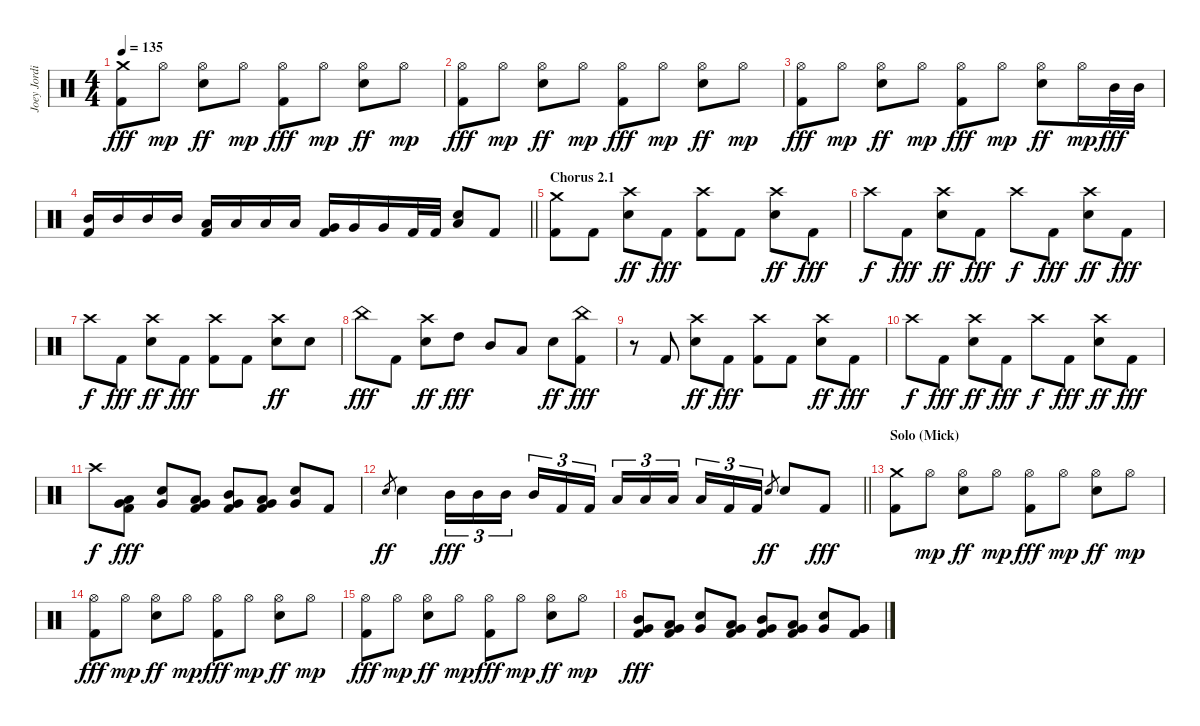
\track ("Joey Jordison" "Joey Jordi") {instrument percussion}
\staff {score}
\articulation defaults
\ts (4 4)
\tempo 135
\clef neutral
\ks c
("Crash medium (hit)" "Kick (hit) 2").8{dy fff} "Hi-Hat (open)".8{dy mp} ("Hi-Hat (open)" "Electric Snare (hit)").8{dy ff} "Hi-Hat (open)".8{dy mp} ("Hi-Hat (open)" "Kick (hit) 2").8{dy fff} "Hi-Hat (open)".8{dy mp} ("Hi-Hat (open)" "Electric Snare (hit)").8{dy ff} "Hi-Hat (open)".8{dy mp} |
("Hi-Hat (open)" "Kick (hit) 2").8{dy fff} "Hi-Hat (open)".8{dy mp} ("Hi-Hat (open)" "Electric Snare (hit)").8{dy ff} "Hi-Hat (open)".8{dy mp} ("Hi-Hat (open)" "Kick (hit) 2").8{dy fff} "Hi-Hat (open)".8{dy mp} ("Hi-Hat (open)" "Electric Snare (hit)").8{dy ff} "Hi-Hat (open)".8{dy mp} |
("Hi-Hat (open)" "Kick (hit) 2").8{dy fff} "Hi-Hat (open)".8{dy mp} ("Hi-Hat (open)" "Electric Snare (hit)").8{dy ff} "Hi-Hat (open)".8{dy mp} ("Hi-Hat (open)" "Kick (hit) 2").8{dy fff} "Hi-Hat (open)".8{dy mp} ("Hi-Hat (open)" "Electric Snare (hit)").8{dy ff} "Hi-Hat (open)".16{dy mp} "Mid Tom (hit)".32{dy fff} "Mid Tom (hit)".32 |
\barLineRight lightlight
("Mid Tom (hit)" "Kick (hit) 2").16 "Mid Tom (hit)".16 "Mid Tom (hit)".16 "Mid Tom (hit)".16 ("Low Tom (hit)" "Kick (hit) 2").16 "Low Tom (hit)".16 "Low Tom (hit)".16 "Low Tom (hit)".16 ("Very Low Tom (hit)" "Kick (hit) 2").16 "Very Low Tom (hit)".16 "Very Low Tom (hit)".16 "Kick (hit) 2".32 "Kick (hit) 2".32 ("Electric Snare (hit)" "Low Floor Tom (hit)").8 "Kick (hit) 2".8 |
\section ("" "Chorus 2.1")
("Crash medium (hit)" "Kick (hit) 2").8 "Kick (hit) 2".8 ("Crash high (hit)" "Electric Snare (hit)").8{dy ff} "Kick (hit) 2".8{dy fff} ("Crash high (hit)" "Kick (hit) 2").8 "Kick (hit) 2".8 ("Crash high (hit)" "Electric Snare (hit)").8{dy ff} "Kick (hit) 2".8{dy fff} |
"Crash high (hit)".8{dy f} "Kick (hit) 2".8{dy fff} ("Crash high (hit)" "Electric Snare (hit)").8{dy ff} "Kick (hit) 2".8{dy fff} "Crash high (hit)".8{dy f} "Kick (hit) 2".8{dy fff} ("Crash high (hit)" "Electric Snare (hit)").8{dy ff} "Kick (hit) 2".8{dy fff} |
"Crash high (hit)".8{dy f} "Kick (hit) 2".8{dy fff} ("Crash high (hit)" "Electric Snare (hit)").8{dy ff} "Kick (hit) 2".8{dy fff} ("Crash high (hit)" "Kick (hit) 2").8 "Kick (hit) 2".8 ("Crash high (hit)" "Electric Snare (hit)").8{dy ff} "Electric Snare (hit)".8 |
"China (hit)".8{dy fff} "Kick (hit) 2".8 ("Crash high (hit)" "Electric Snare (hit)").8{dy ff} "High Tom (hit)".8{dy fff} "Mid Tom (hit)".8 "Low Tom (hit)".8 "Electric Snare (hit)".8{dy ff} ("China (hit)" "Kick (hit) 2").8{dy fff} |
r.8 "Kick (hit) 2".8 ("Crash high (hit)" "Electric Snare (hit)").8{dy ff} "Kick (hit) 2".8{dy fff} ("Crash high (hit)" "Kick (hit) 2").8 "Kick (hit) 2".8 ("Crash high (hit)" "Electric Snare (hit)").8{dy ff} "Kick (hit) 2".8{dy fff} |
"Crash high (hit)".8{dy f} "Kick (hit) 2".8{dy fff} ("Crash high (hit)" "Electric Snare (hit)").8{dy ff} "Kick (hit) 2".8{dy fff} "Crash high (hit)".8{dy f} "Kick (hit) 2".8{dy fff} ("Crash high (hit)" "Electric Snare (hit)").8{dy ff} "Kick (hit) 2".8{dy fff} |
"Crash high (hit)".8{dy f} ("Low Tom (hit)" "Very Low Tom (hit)" "Kick (hit) 2").8{dy fff} ("Electric Snare (hit)" "Very Low Tom (hit)").8 ("Low Tom (hit)" "Very Low Tom (hit)" "Kick (hit) 2").8 ("Mid Tom (hit)" "Very Low Tom (hit)" "Kick (hit) 2").8 ("Low Tom (hit)" "Very Low Tom (hit)" "Kick (hit) 2").8 ("Electric Snare (hit)" "Very Low Tom (hit)").8 "Kick (hit) 2".8 |
\barLineRight lightlight "Electric Snare (hit)".8{gr dy ff} "Electric Snare (hit)".4 "Mid Tom (hit)".16{tu (3 2) dy fff} "Mid Tom (hit)".16{tu (3 2)} "Mid Tom (hit)".16{tu (3 2) beam splitsecondary} "Mid Tom (hit)".16{tu (3 2)} "Kick (hit) 2".16{tu (3 2)} "Kick (hit) 2".16{tu (3 2)} "Low Tom (hit)".16{tu (3 2)} "Low Tom (hit)".16{tu (3 2)} "Low Tom (hit)".16{tu (3 2) beam splitsecondary} "Low Tom (hit)".16{tu (3 2)} "Kick (hit) 2".16{tu (3 2)} "Kick (hit) 2".16{tu (3 2)} "Electric Snare (hit)".8{gr dy ff} "Electric Snare (hit)".8 "Kick (hit) 2".8{dy fff}
|
\section ("" "Solo (Mick)")
("Crash medium (hit)" "Kick (hit) 2").8 "Hi-Hat (open)".8{dy mp} ("Hi-Hat (open)" "Electric Snare (hit)").8{dy ff} "Hi-Hat (open)".8{dy mp} ("Hi-Hat (open)" "Kick (hit) 2").8{dy fff} "Hi-Hat (open)".8{dy mp} ("Hi-Hat (open)" "Electric Snare (hit)").8{dy ff} "Hi-Hat (open)".8{dy mp} |
("Hi-Hat (open)" "Kick (hit) 2").8{dy fff} "Hi-Hat (open)".8{dy mp} ("Hi-Hat (open)" "Electric Snare (hit)").8{dy ff} "Hi-Hat (open)".8{dy mp} ("Hi-Hat (open)" "Kick (hit) 2").8{dy fff} "Hi-Hat (open)".8{dy mp} ("Hi-Hat (open)" "Electric Snare (hit)").8{dy ff} "Hi-Hat (open)".8{dy mp} |
("Hi-Hat (open)" "Kick (hit) 2").8{dy fff} "Hi-Hat (open)".8{dy mp} ("Hi-Hat (open)" "Electric Snare (hit)").8{dy ff} "Hi-Hat (open)".8{dy mp} ("Hi-Hat (open)" "Kick (hit) 2").8{dy fff} "Hi-Hat (open)".8{dy mp} ("Hi-Hat (open)" "Electric Snare (hit)").8{dy ff} "Hi-Hat (open)".8{dy mp} |
("Mid Tom (hit)" "Very Low Tom (hit)" "Kick (hit) 2").8{dy fff} ("Low Tom (hit)" "Very Low Tom (hit)" "Kick (hit) 2").8 ("Electric Snare (hit)" "Very Low Tom (hit)").8 ("Low Tom (hit)" "Very Low Tom (hit)" "Kick (hit) 2").8 ("Mid Tom (hit)" "Very Low Tom (hit)" "Kick (hit) 2").8 ("Low Tom (hit)" "Very Low Tom (hit)" "Kick (hit) 2").8 ("Electric Snare (hit)" "Very Low Tom (hit)").8 ("Very Low Tom (hit)" "Very Low Tom (hit)" "Kick (hit) 2").8
